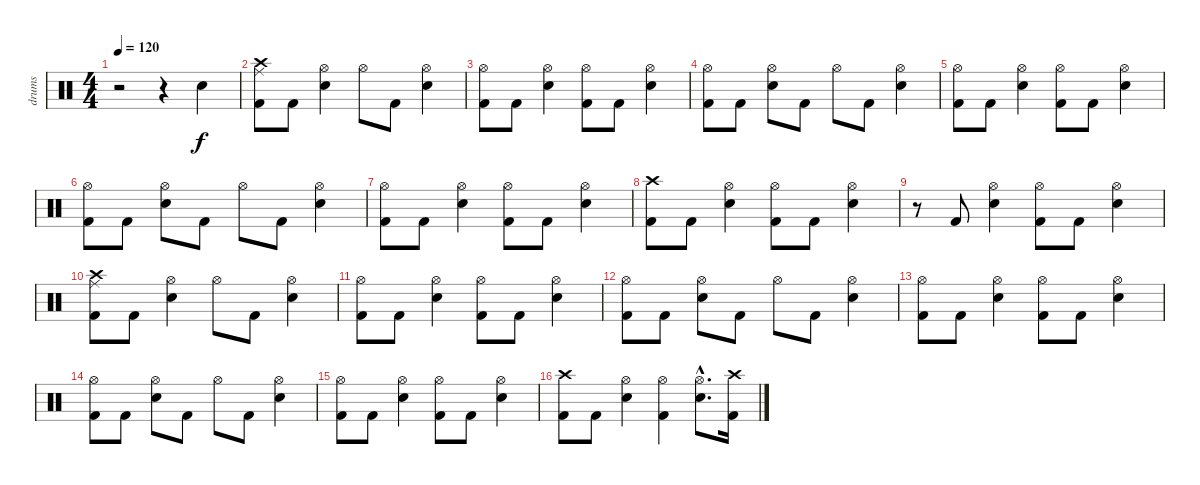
\track ("drums" "drums") {instrument percussion}
\staff {score}
\articulation defaults
\ts (4 4)
\tempo 120
\clef neutral
\ks c
r.2{dy f} r.4 "Electric Snare (hit)".4 |
("Crash high (hit)" "Ride (middle)" "Kick (hit) 2").8 "Kick (hit) 2".8 ("Hi-Hat (open)" "Electric Snare (hit)").4 "Hi-Hat (open)".8 "Kick (hit) 2".8 ("Hi-Hat (open)" "Electric Snare (hit)").4 |
("Hi-Hat (open)" "Kick (hit) 2").8 "Kick (hit) 2".8 ("Hi-Hat (open)" "Electric Snare (hit)").4 ("Hi-Hat (open)" "Kick (hit) 2").8 "Kick (hit) 2".8 ("Hi-Hat (open)" "Electric Snare (hit)").4 |
("Hi-Hat (open)" "Kick (hit) 2").8 "Kick (hit) 2".8 ("Hi-Hat (open)" "Electric Snare (hit)").8 "Kick (hit) 2".8 "Hi-Hat (open)".8 "Kick (hit) 2".8 ("Hi-Hat (open)" "Electric Snare (hit)").4 |
("Hi-Hat (open)" "Kick (hit) 2").8 "Kick (hit) 2".8 ("Hi-Hat (open)" "Electric Snare (hit)").4 ("Hi-Hat (open)" "Kick (hit) 2").8 "Kick (hit) 2".8 ("Hi-Hat (open)" "Electric Snare (hit)").4 |
("Hi-Hat (open)" "Kick (hit) 2").8 "Kick (hit) 2".8 ("Hi-Hat (open)" "Electric Snare (hit)").8 "Kick (hit) 2".8 "Hi-Hat (open)".8 "Kick (hit) 2".8 ("Hi-Hat (open)" "Electric Snare (hit)").4 |
("Hi-Hat (open)" "Kick (hit) 2").8 "Kick (hit) 2".8 ("Hi-Hat (open)" "Electric Snare (hit)").4 ("Hi-Hat (open)" "Kick (hit) 2").8 "Kick (hit) 2".8 ("Hi-Hat (open)" "Electric Snare (hit)").4 |
("Crash high (hit)" "Kick (hit) 2").8 "Kick (hit) 2".8 ("Hi-Hat (open)" "Electric Snare (hit)").4 ("Hi-Hat (open)" "Kick (hit) 2").8 "Kick (hit) 2".8 ("Hi-Hat (open)" "Electric Snare (hit)").4 |
r.8 "Kick (hit) 2".8 ("Hi-Hat (open)" "Electric Snare (hit)").4 ("Hi-Hat (open)" "Kick (hit) 2").8 "Kick (hit) 2".8 ("Hi-Hat (open)" "Electric Snare (hit)").4 |
("Crash high (hit)" "Ride (middle)" "Kick (hit) 2").8 "Kick (hit) 2".8 ("Hi-Hat (open)" "Electric Snare (hit)").4 "Hi-Hat (open)".8 "Kick (hit) 2".8 ("Hi-Hat (open)" "Electric Snare (hit)").4 |
("Hi-Hat (open)" "Kick (hit) 2").8 "Kick (hit) 2".8 ("Hi-Hat (open)" "Electric Snare (hit)").4 ("Hi-Hat (open)" "Kick (hit) 2").8 "Kick (hit) 2".8 ("Hi-Hat (open)" "Electric Snare (hit)").4 |
("Hi-Hat (open)" "Kick (hit) 2").8 "Kick (hit) 2".8 ("Hi-Hat (open)" "Electric Snare (hit)").8 "Kick (hit) 2".8 "Hi-Hat (open)".8 "Kick (hit) 2".8 ("Hi-Hat (open)" "Electric Snare (hit)").4 |
("Hi-Hat (open)" "Kick (hit) 2").8 "Kick (hit) 2".8 ("Hi-Hat (open)" "Electric Snare (hit)").4 ("Hi-Hat (open)" "Kick (hit) 2").8 "Kick (hit) 2".8 ("Hi-Hat (open)" "Electric Snare (hit)").4 |
("Hi-Hat (open)" "Kick (hit) 2").8 "Kick (hit) 2".8 ("Hi-Hat (open)" "Electric Snare (hit)").8 "Kick (hit) 2".8 "Hi-Hat (open)".8 "Kick (hit) 2".8 ("Hi-Hat (open)" "Electric Snare (hit)").4 |
("Hi-Hat (open)" "Kick (hit) 2").8 "Kick (hit) 2".8 ("Hi-Hat (open)" "Electric Snare (hit)").4 ("Hi-Hat (open)" "Kick (hit) 2").8 "Kick (hit) 2".8 ("Hi-Hat (open)" "Electric Snare (hit)").4 |
("Crash high (hit)" "Kick (hit) 2").8 "Kick (hit) 2".8 ("Hi-Hat (open)" "Electric Snare (hit)").4 ("Hi-Hat (open)" "Kick (hit) 2").4 ("Hi-Hat (open)"{hac} "Electric Snare (hit)"{hac}).8{d} ("Crash high (hit)" "Kick (hit) 2").16
